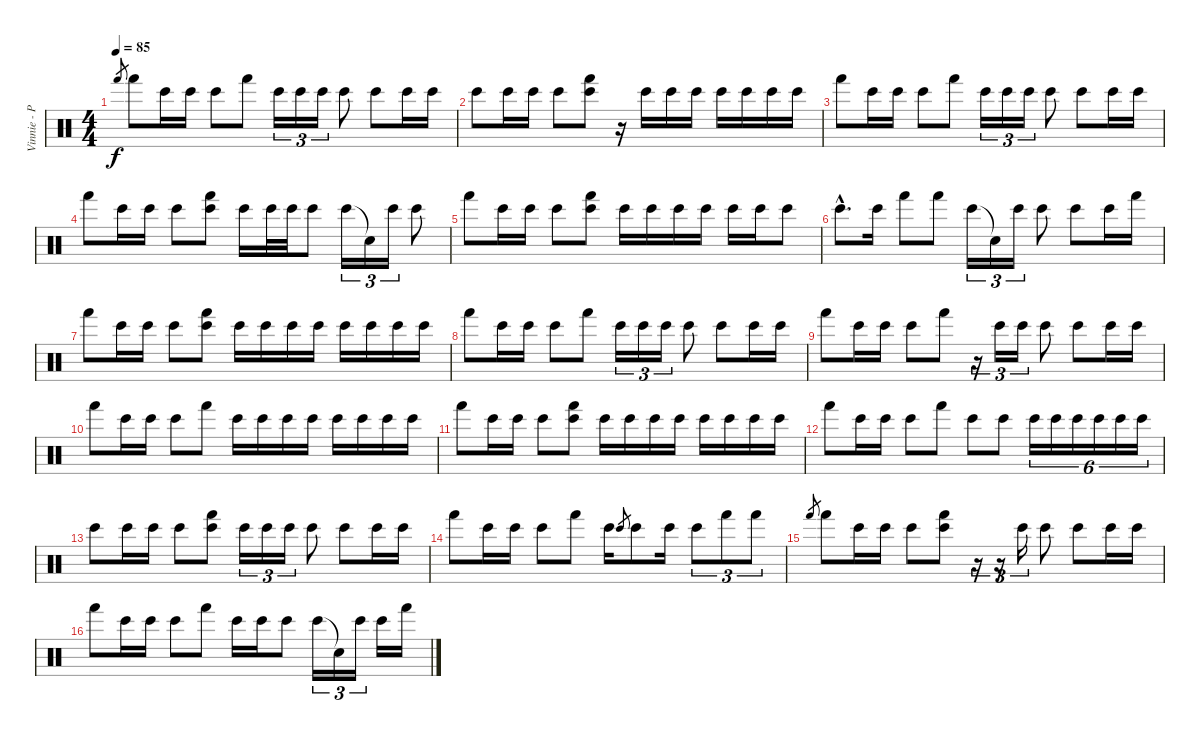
\track ("Vinnie - Percusion" "Vinnie - P") {instrument percussion}
\staff {score}
\articulation defaults
\ts (4 4)
\tempo 85
\clef neutral
\ks c "Hand (hit)".8{gr dy f} "Hand (hit)".8 "Bongo High (hit)".16 "Bongo High (hit)".16 "Bongo High (hit)".8 "Hand (hit)".8 "Bongo High (hit)".16{tu (3 2)} "Bongo High (hit)".16{tu (3 2)} "Bongo High (hit)".16{tu (3 2)} "Bongo High (hit)".8 "Bongo High (hit)".8 "Bongo High (hit)".16 "Bongo High (hit)".16
|
"Bongo High (hit)".8 "Bongo High (hit)".16 "Bongo High (hit)".16 "Bongo High (hit)".8 ("Bongo High (hit)" "Hand (hit)").8 r.16 "Bongo High (hit)".16 "Bongo High (hit)".16 "Bongo High (hit)".16 "Bongo High (hit)".16 "Bongo High (hit)".16 "Bongo High (hit)".16 "Bongo High (hit)".16 |
"Hand (hit)".8 "Bongo High (hit)".16 "Bongo High (hit)".16 "Bongo High (hit)".8 "Hand (hit)".8 "Bongo High (hit)".16{tu (3 2)} "Bongo High (hit)".16{tu (3 2)} "Bongo High (hit)".16{tu (3 2)} "Bongo High (hit)".8 "Bongo High (hit)".8 "Bongo High (hit)".16 "Bongo High (hit)".16 |
"Hand (hit)".8 "Bongo High (hit)".16 "Bongo High (hit)".16 "Bongo High (hit)".8 ("Bongo High (hit)" "Hand (hit)").8 "Bongo High (hit)".16 "Bongo High (hit)".32 "Bongo High (hit)".32 "Bongo High (hit)".8 "Bongo High (hit)".16{tu (3 2)} "Snare (hit)"{t}.16{tu (3 2)} "Bongo High (hit)".16{tu (3 2)} "Bongo High (hit)".8 |
"Hand (hit)".8 "Bongo High (hit)".16 "Bongo High (hit)".16 "Bongo High (hit)".8 ("Bongo High (hit)" "Hand (hit)").8 "Bongo High (hit)".16 "Bongo High (hit)".16 "Bongo High (hit)".16 "Bongo High (hit)".16 "Bongo High (hit)".16 "Bongo High (hit)".16 "Bongo High (hit)".8 |
"Bongo High (hit)"{hac}.8{d} "Bongo High (hit)".16 "Hand (hit)".8 "Hand (hit)".8 "Bongo High (hit)".16{tu (3 2)} "Snare (hit)"{t}.16{tu (3 2)} "Bongo High (hit)".16{tu (3 2)} "Bongo High (hit)".8 "Bongo High (hit)".8 "Bongo High (hit)".16 "Hand (hit)".16 |
"Hand (hit)".8 "Bongo High (hit)".16 "Bongo High (hit)".16 "Bongo High (hit)".8 ("Bongo High (hit)" "Hand (hit)").8 "Bongo High (hit)".16 "Bongo High (hit)".16 "Bongo High (hit)".16 "Bongo High (hit)".16 "Bongo High (hit)".16 "Bongo High (hit)".16 "Bongo High (hit)".16 "Bongo High (hit)".16 |
"Hand (hit)".8 "Bongo High (hit)".16 "Bongo High (hit)".16 "Bongo High (hit)".8 "Hand (hit)".8 "Bongo High (hit)".16{tu (3 2)} "Bongo High (hit)".16{tu (3 2)} "Bongo High (hit)".16{tu (3 2)} "Bongo High (hit)".8 "Bongo High (hit)".8 "Bongo High (hit)".16 "Bongo High (hit)".16 |
"Hand (hit)".8 "Bongo High (hit)".16 "Bongo High (hit)".16 "Bongo High (hit)".8 "Hand (hit)".8 r.16{tu (3 2)} "Bongo High (hit)".16{tu (3 2)} "Bongo High (hit)".16{tu (3 2)} "Bongo High (hit)".8 "Bongo High (hit)".8 "Bongo High (hit)".16 "Bongo High (hit)".16 |
"Hand (hit)".8 "Bongo High (hit)".16 "Bongo High (hit)".16 "Bongo High (hit)".8 "Hand (hit)".8 "Bongo High (hit)".16 "Bongo High (hit)".16 "Bongo High (hit)".16 "Bongo High (hit)".16 "Bongo High (hit)".16 "Bongo High (hit)".16 "Bongo High (hit)".16 "Bongo High (hit)".16 |
"Hand (hit)".8 "Bongo High (hit)".16 "Bongo High (hit)".16 "Bongo High (hit)".8 ("Bongo High (hit)" "Hand (hit)").8 "Bongo High (hit)".16 "Bongo High (hit)".16 "Bongo High (hit)".16 "Bongo High (hit)".16 "Bongo High (hit)".16 "Bongo High (hit)".16 "Bongo High (hit)".16 "Bongo High (hit)".16 |
"Hand (hit)".8 "Bongo High (hit)".16 "Bongo High (hit)".16 "Bongo High (hit)".8 "Hand (hit)".8 "Bongo High (hit)".8 "Bongo High (hit)".8 "Bongo High (hit)".16{tu (6 4)} "Bongo High (hit)".16{tu (6 4)} "Bongo High (hit)".16{tu (6 4)} "Bongo High (hit)".16{tu (6 4)} "Bongo High (hit)".16{tu (6 4)} "Bongo High (hit)".16{tu (6 4)} |
"Bongo High (hit)".8 "Bongo High (hit)".16 "Bongo High (hit)".16 "Bongo High (hit)".8 ("Bongo High (hit)" "Hand (hit)").8 "Bongo High (hit)".16{tu (3 2)} "Bongo High (hit)".16{tu (3 2)} "Bongo High (hit)".16{tu (3 2)} "Bongo High (hit)".8 "Bongo High (hit)".8 "Bongo High (hit)".16 "Bongo High (hit)".16 |
"Hand (hit)".8 "Bongo High (hit)".16 "Bongo High (hit)".16 "Bongo High (hit)".8 "Hand (hit)".8 "Bongo High (hit)".16 "Bongo High (hit)".8{gr} "Bongo High (hit)".8 "Bongo High (hit)".16 "Bongo High (hit)".8{tu (3 2)} "Hand (hit)".8{tu (3 2)} "Hand (hit)".8{tu (3 2)} |
"Hand (hit)".8{gr} "Hand (hit)".8{volume 8} "Bongo High (hit)".16 "Bongo High (hit)".16 "Bongo High (hit)".8 ("Bongo High (hit)" "Hand (hit)").8 r.16{tu (3 2)} r.16{tu (3 2)} "Bongo High (hit)".16{tu (3 2)} "Bongo High (hit)".8 "Bongo High (hit)".8 "Bongo High (hit)".16 "Bongo High (hit)".16 |
"Hand (hit)".8 "Bongo High (hit)".16 "Bongo High (hit)".16 "Bongo High (hit)".8 "Hand (hit)".8 "Bongo High (hit)".16 "Bongo High (hit)".16 "Bongo High (hit)".8 "Bongo High (hit)".16{tu (3 2)} "Snare (hit)"{t}.16{tu (3 2)} "Bongo High (hit)".16{tu (3 2)} "Bongo High (hit)".16 "Hand (hit)".16
